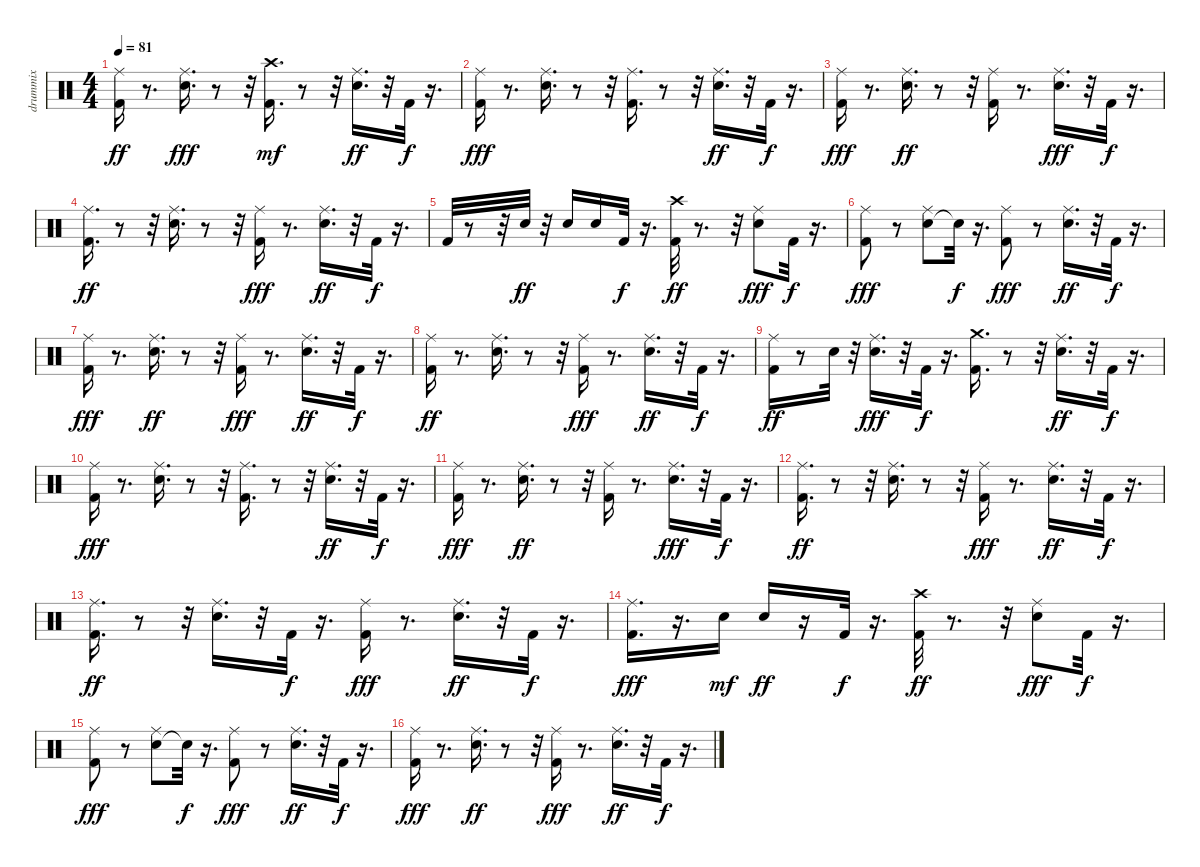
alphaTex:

\track ("drummix " "drummix ") {instrument percussion}
\staff {score}
\articulation defaults
\ts (4 4)
\tempo 81
\clef neutral
\ks c
("Kick (hit) 2" "Ride (middle)").16{dy ff} r.8{d} ("Snare (hit) 2" "Ride (middle)").16{d dy fff} r.8 r.32 ("Kick (hit) 2" "Crash high (hit)").16{d dy mf} r.8 r.32 ("Snare (hit) 2" "Ride (middle)").16{d dy ff} r.32 "Kick (hit) 2".32{dy f} r.16{d} |
("Kick (hit) 2" "Ride (middle)").16{dy fff} r.8{d} ("Snare (hit) 2" "Ride (middle)").16{d} r.8 r.32 ("Kick (hit) 2" "Ride (middle)").16{d} r.8 r.32 ("Snare (hit) 2" "Ride (middle)").16{d dy ff} r.32 "Kick (hit) 2".32{dy f} r.16{d} |
("Kick (hit) 2" "Ride (middle)").16{dy fff} r.8{d} ("Snare (hit) 2" "Ride (middle)").16{d dy ff} r.8 r.32 ("Kick (hit) 2" "Ride (middle)").16 r.8{d} ("Snare (hit) 2" "Ride (middle)").16{d dy fff} r.32 "Kick (hit) 2".32{dy f} r.16{d} |
("Kick (hit) 2" "Ride (middle)").16{d dy ff} r.8 r.32 ("Snare (hit) 2" "Ride (middle)").16{d} r.8 r.32 ("Kick (hit) 2" "Ride (middle)").16{dy fff} r.8{d} ("Snare (hit) 2" "Ride (middle)").16{d dy ff} r.32 "Kick (hit) 2".32{dy f} r.16{d} |
"Kick (hit) 2".32 r.8 r.32 "Snare (hit) 2".32{dy ff} r.32 "Snare (hit) 2".16 "Snare (hit) 2".16 "Kick (hit) 2".32{dy f} r.16{d} ("Kick (hit) 2" "Crash high (hit)").32{dy ff} r.8{d} r.32 ("Snare (hit) 2" "Ride (middle)").8{dy fff} "Kick (hit) 2".32{dy f} r.16{d} |
("Kick (hit) 2" "Ride (middle)").8{dy fff} r.8 ("Snare (hit) 2" "Ride (middle)").8 "Snare (hit)"{t}.32{dy f} r.16{d} ("Kick (hit) 2" "Ride (middle)").8{dy fff} r.8 ("Snare (hit) 2" "Ride (middle)").16{d dy ff} r.32 "Kick (hit) 2".32{dy f} r.16{d} |
("Kick (hit) 2" "Ride (middle)").16{dy fff} r.8{d} ("Snare (hit) 2" "Ride (middle)").16{d dy ff} r.8 r.32 ("Kick (hit) 2" "Ride (middle)").16{dy fff} r.8{d} ("Snare (hit) 2" "Ride (middle)").16{d dy ff} r.32 "Kick (hit) 2".32{dy f} r.16{d} |
("Kick (hit) 2" "Ride (middle)").16{dy ff} r.8{d} ("Snare (hit) 2" "Ride (middle)").16{d} r.8 r.32 ("Kick (hit) 2" "Ride (middle)").16{dy fff} r.8{d} ("Snare (hit) 2" "Ride (middle)").16{d dy ff} r.32 "Kick (hit) 2".32{dy f} r.16{d} |
("Kick (hit) 2" "Ride (middle)").16{dy ff} r.8 "Snare (hit) 2".32 r.32 ("Snare (hit) 2" "Ride (middle)").16{d dy fff} r.32 "Kick (hit) 2".32{dy f} r.16{d} ("Kick (hit) 2" "Crash medium (hit)").16{d} r.8 r.32 ("Snare (hit) 2" "Ride (middle)").16{d dy ff} r.32 "Kick (hit) 2".32{dy f} r.16{d} |
("Kick (hit) 2" "Ride (middle)").16{dy fff} r.8{d} ("Snare (hit) 2" "Ride (middle)").16{d} r.8 r.32 ("Kick (hit) 2" "Ride (middle)").16{d} r.8 r.32 ("Snare (hit) 2" "Ride (middle)").16{d dy ff} r.32 "Kick (hit) 2".32{dy f} r.16{d} |
("Kick (hit) 2" "Ride (middle)").16{dy fff} r.8{d} ("Snare (hit) 2" "Ride (middle)").16{d dy ff} r.8 r.32 ("Kick (hit) 2" "Ride (middle)").16 r.8{d} ("Snare (hit) 2" "Ride (middle)").16{d dy fff} r.32 "Kick (hit) 2".32{dy f} r.16{d} |
("Kick (hit) 2" "Ride (middle)").16{d dy ff} r.8 r.32 ("Snare (hit) 2" "Ride (middle)").16{d} r.8 r.32 ("Kick (hit) 2" "Ride (middle)").16{dy fff} r.8{d} ("Snare (hit) 2" "Ride (middle)").16{d dy ff} r.32 "Kick (hit) 2".32{dy f} r.16{d} |
("Kick (hit) 2" "Ride (middle)").16{d dy ff} r.8 r.32 ("Snare (hit) 2" "Ride (middle)").16{d} r.32 "Kick (hit) 2".32{dy f} r.16{d} ("Kick (hit) 2" "Ride (middle)").16{dy fff} r.8{d} ("Snare (hit) 2" "Ride (middle)").16{d dy ff} r.32 "Kick (hit) 2".32{dy f} r.16{d} |
("Kick (hit) 2" "Ride (middle)").16{d dy fff} r.16{d} "Snare (hit) 2".16{dy mf} "Snare (hit) 2".16{dy ff} r.16 "Kick (hit) 2".32{dy f} r.16{d} ("Kick (hit) 2" "Crash high (hit)").32{dy ff} r.8{d} r.32 ("Snare (hit) 2" "Ride (middle)").8{dy fff} "Kick (hit) 2".32{dy f} r.16{d} |
("Kick (hit) 2" "Ride (middle)").8{dy fff} r.8 ("Snare (hit) 2" "Ride (middle)").8 "Snare (hit)"{t}.32{dy f} r.16{d} ("Kick (hit) 2" "Ride (middle)").8{dy fff} r.8 ("Snare (hit) 2" "Ride (middle)").16{d dy ff} r.32 "Kick (hit) 2".32{dy f} r.16{d} |
("Kick (hit) 2" "Ride (middle)").16{dy fff} r.8{d} ("Snare (hit) 2" "Ride (middle)").16{d dy ff} r.8 r.32 ("Kick (hit) 2" "Ride (middle)").16{dy fff} r.8{d} ("Snare (hit) 2" "Ride (middle)").16{d dy ff} r.32 "Kick (hit) 2".32{dy f} r.16{d}
